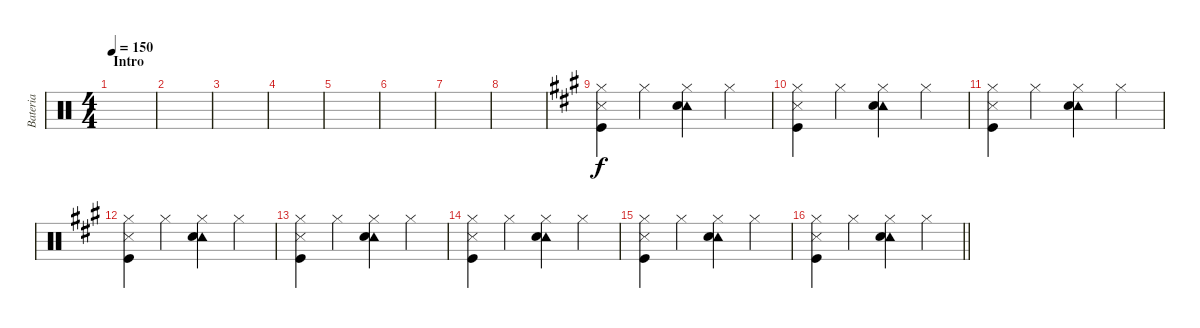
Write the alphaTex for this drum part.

\track ("Bateria" "Bateria") {instrument percussion}
\staff {score}
\articulation defaults
\ts (4 4)
\section ("" "Intro")
\tempo 150
\clef neutral
\ks c
|
|
|
|
|
|
|
|
\ks a
("Hi-Hat (closed)" "Metronome (hit)" "Kick (hit)").4 "Hi-Hat (closed)".4 ("Tambourine (hit)" "Hi-Hat (closed)" "Electric Snare (hit)").4 "Hi-Hat (closed)".4 |
("Hi-Hat (closed)" "Metronome (hit)" "Kick (hit)").4 "Hi-Hat (closed)".4 ("Tambourine (hit)" "Hi-Hat (closed)" "Electric Snare (hit)").4 "Hi-Hat (closed)".4 |
("Hi-Hat (closed)" "Metronome (hit)" "Kick (hit)").4 "Hi-Hat (closed)".4 ("Tambourine (hit)" "Hi-Hat (closed)" "Electric Snare (hit)").4 "Hi-Hat (closed)".4 |
("Hi-Hat (closed)" "Metronome (hit)" "Kick (hit)").4 "Hi-Hat (closed)".4 ("Tambourine (hit)" "Hi-Hat (closed)" "Electric Snare (hit)").4 "Hi-Hat (closed)".4 |
("Hi-Hat (closed)" "Metronome (hit)" "Kick (hit)").4 "Hi-Hat (closed)".4 ("Tambourine (hit)" "Hi-Hat (closed)" "Electric Snare (hit)").4 "Hi-Hat (closed)".4 |
("Hi-Hat (closed)" "Metronome (hit)" "Kick (hit)").4 "Hi-Hat (closed)".4 ("Tambourine (hit)" "Hi-Hat (closed)" "Electric Snare (hit)").4 "Hi-Hat (closed)".4 |
("Hi-Hat (closed)" "Metronome (hit)" "Kick (hit)").4 "Hi-Hat (closed)".4 ("Tambourine (hit)" "Hi-Hat (closed)" "Electric Snare (hit)").4 "Hi-Hat (closed)".4 |
\barLineRight lightlight
("Hi-Hat (closed)" "Metronome (hit)" "Kick (hit)").4 "Hi-Hat (closed)".4 ("Tambourine (hit)" "Hi-Hat (closed)" "Electric Snare (hit)").4 "Hi-Hat (closed)".4
